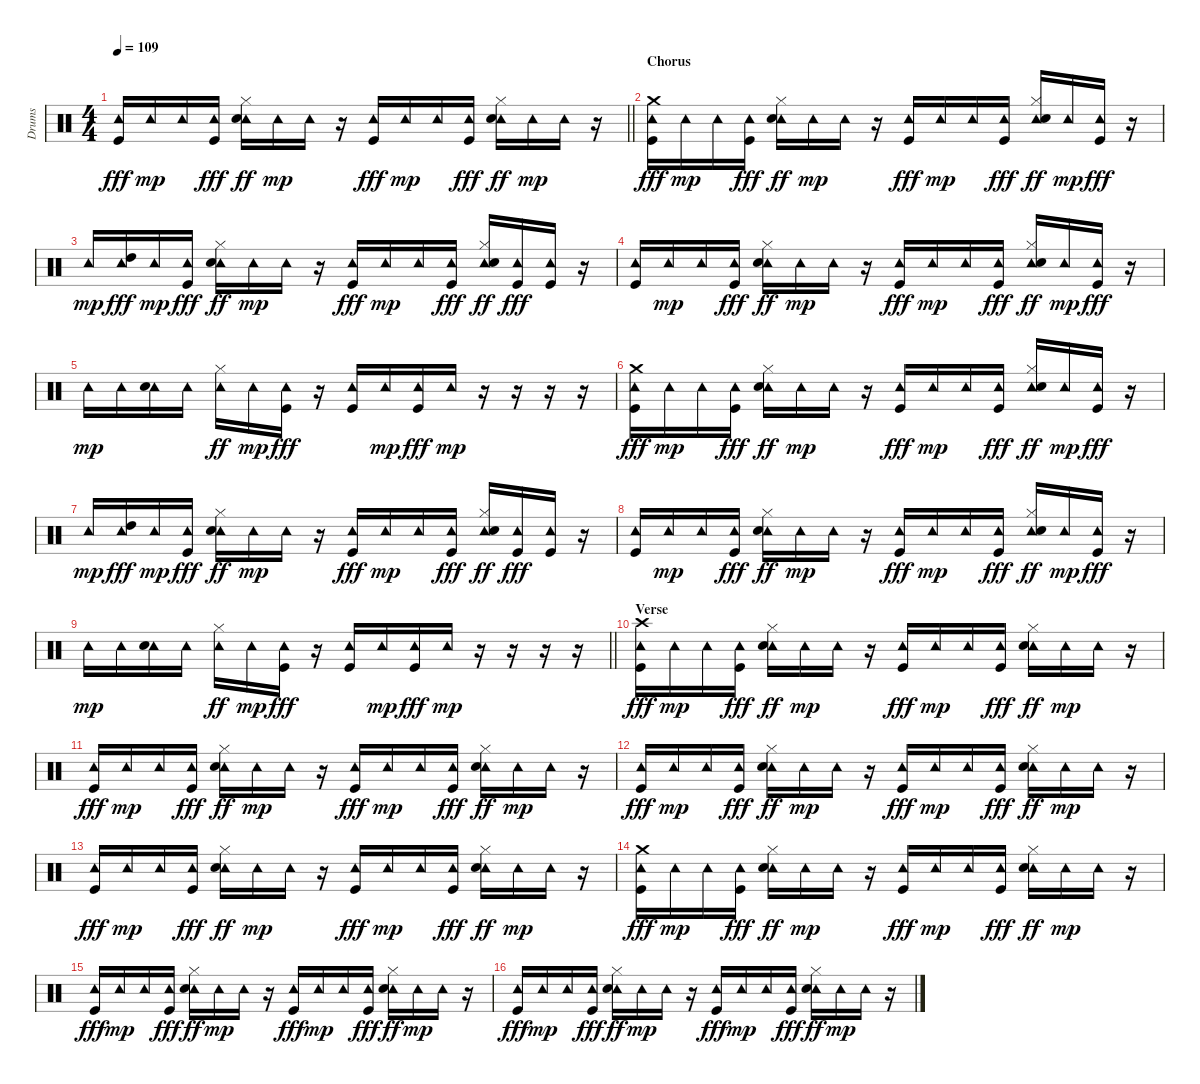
\track ("Drums" "Drums") {instrument percussion}
\staff {score}
\articulation defaults
\ts (4 4)
\tempo 109
\clef neutral
\barLineRight lightlight
\ks c
("Tambourine (hit)" "Kick (hit)").16{dy fff} "Tambourine (hit)".16{dy mp} "Tambourine (hit)".16 ("Tambourine (hit)" "Kick (hit)").16{dy fff} ("Tambourine (hit)" "Hi-Hat (closed)" "Electric Snare (hit)").16{dy ff} "Tambourine (hit)".16{dy mp} "Tambourine (hit)".16 r.16 ("Tambourine (hit)" "Kick (hit)").16{dy fff} "Tambourine (hit)".16{dy mp} "Tambourine (hit)".16 ("Tambourine (hit)" "Kick (hit)").16{dy fff} ("Tambourine (hit)" "Hi-Hat (closed)" "Electric Snare (hit)").16{dy ff} "Tambourine (hit)".16{dy mp} "Tambourine (hit)".16 r.16 |
\section ("" "Chorus")
("Crash medium (hit)" "Tambourine (hit)" "Kick (hit)").16{dy fff} "Tambourine (hit)".16{dy mp} "Tambourine (hit)".16 ("Tambourine (hit)" "Kick (hit)").16{dy fff} ("Tambourine (hit)" "Hi-Hat (closed)" "Electric Snare (hit)").16{dy ff} "Tambourine (hit)".16{dy mp} "Tambourine (hit)".16 r.16 ("Tambourine (hit)" "Kick (hit)").16{dy fff} "Tambourine (hit)".16{dy mp} "Tambourine (hit)".16 ("Tambourine (hit)" "Kick (hit)").16{dy fff} ("Tambourine (hit)" "Hi-Hat (closed)" "Electric Snare (hit)").16{dy ff} "Tambourine (hit)".16{dy mp} ("Tambourine (hit)" "Kick (hit)").16{dy fff} r.16 |
"Tambourine (hit)".16{dy mp} ("Tambourine (hit)" "High Tom (hit)").16{dy fff} "Tambourine (hit)".16{dy mp} ("Tambourine (hit)" "Kick (hit)").16{dy fff} ("Tambourine (hit)" "Hi-Hat (closed)" "Electric Snare (hit)").16{dy ff} "Tambourine (hit)".16{dy mp} "Tambourine (hit)".16 r.16 ("Tambourine (hit)" "Kick (hit)").16{dy fff} "Tambourine (hit)".16{dy mp} "Tambourine (hit)".16 ("Tambourine (hit)" "Kick (hit)").16{dy fff} ("Tambourine (hit)" "Hi-Hat (closed)" "Electric Snare (hit)").16{dy ff} ("Tambourine (hit)" "Kick (hit)").16{dy fff} ("Tambourine (hit)" "Kick (hit)").16 r.16 |
("Tambourine (hit)" "Kick (hit)").16 "Tambourine (hit)".16{dy mp} "Tambourine (hit)".16 ("Tambourine (hit)" "Kick (hit)").16{dy fff} ("Tambourine (hit)" "Hi-Hat (closed)" "Electric Snare (hit)").16{dy ff} "Tambourine (hit)".16{dy mp} "Tambourine (hit)".16 r.16 ("Tambourine (hit)" "Kick (hit)").16{dy fff} "Tambourine (hit)".16{dy mp} "Tambourine (hit)".16 ("Tambourine (hit)" "Kick (hit)").16{dy fff} ("Tambourine (hit)" "Hi-Hat (closed)" "Electric Snare (hit)").16{dy ff} "Tambourine (hit)".16{dy mp} ("Tambourine (hit)" "Kick (hit)").16{dy fff} r.16 |
"Tambourine (hit)".16{dy mp} "Tambourine (hit)".16 ("Tambourine (hit)" "Electric Snare (hit)").16 "Tambourine (hit)".16 ("Tambourine (hit)" "Hi-Hat (closed)").16{dy ff} "Tambourine (hit)".16{dy mp} ("Tambourine (hit)" "Kick (hit)").16{dy fff} r.16 ("Tambourine (hit)" "Kick (hit)").16 "Tambourine (hit)".16{dy mp} ("Tambourine (hit)" "Kick (hit)").16{dy fff} "Tambourine (hit)".16{dy mp} r.16 r.16 r.16 r.16 |
("Crash medium (hit)" "Tambourine (hit)" "Kick (hit)").16{dy fff} "Tambourine (hit)".16{dy mp} "Tambourine (hit)".16 ("Tambourine (hit)" "Kick (hit)").16{dy fff} ("Tambourine (hit)" "Hi-Hat (closed)" "Electric Snare (hit)").16{dy ff} "Tambourine (hit)".16{dy mp} "Tambourine (hit)".16 r.16 ("Tambourine (hit)" "Kick (hit)").16{dy fff} "Tambourine (hit)".16{dy mp} "Tambourine (hit)".16 ("Tambourine (hit)" "Kick (hit)").16{dy fff} ("Tambourine (hit)" "Hi-Hat (closed)" "Electric Snare (hit)").16{dy ff} "Tambourine (hit)".16{dy mp} ("Tambourine (hit)" "Kick (hit)").16{dy fff} r.16 |
"Tambourine (hit)".16{dy mp} ("Tambourine (hit)" "High Tom (hit)").16{dy fff} "Tambourine (hit)".16{dy mp} ("Tambourine (hit)" "Kick (hit)").16{dy fff} ("Tambourine (hit)" "Hi-Hat (closed)" "Electric Snare (hit)").16{dy ff} "Tambourine (hit)".16{dy mp} "Tambourine (hit)".16 r.16 ("Tambourine (hit)" "Kick (hit)").16{dy fff} "Tambourine (hit)".16{dy mp} "Tambourine (hit)".16 ("Tambourine (hit)" "Kick (hit)").16{dy fff} ("Tambourine (hit)" "Hi-Hat (closed)" "Electric Snare (hit)").16{dy ff} ("Tambourine (hit)" "Kick (hit)").16{dy fff} ("Tambourine (hit)" "Kick (hit)").16 r.16 |
("Tambourine (hit)" "Kick (hit)").16 "Tambourine (hit)".16{dy mp} "Tambourine (hit)".16 ("Tambourine (hit)" "Kick (hit)").16{dy fff} ("Tambourine (hit)" "Hi-Hat (closed)" "Electric Snare (hit)").16{dy ff} "Tambourine (hit)".16{dy mp} "Tambourine (hit)".16 r.16 ("Tambourine (hit)" "Kick (hit)").16{dy fff} "Tambourine (hit)".16{dy mp} "Tambourine (hit)".16 ("Tambourine (hit)" "Kick (hit)").16{dy fff} ("Tambourine (hit)" "Hi-Hat (closed)" "Electric Snare (hit)").16{dy ff} "Tambourine (hit)".16{dy mp} ("Tambourine (hit)" "Kick (hit)").16{dy fff} r.16 |
\barLineRight lightlight "Tambourine (hit)".16{dy mp} "Tambourine (hit)".16
("Tambourine (hit)" "Electric Snare (hit)").16 "Tambourine (hit)".16 ("Tambourine (hit)" "Hi-Hat (closed)").16{dy ff} "Tambourine (hit)".16{dy mp} ("Tambourine (hit)" "Kick (hit)").16{dy fff} r.16 ("Tambourine (hit)" "Kick (hit)").16 "Tambourine (hit)".16{dy mp} ("Tambourine (hit)" "Kick (hit)").16{dy fff} "Tambourine (hit)".16{dy mp} r.16 r.16 r.16 r.16 |
\section ("" "Verse")
("Crash high (hit)" "Tambourine (hit)" "Kick (hit)").16{dy fff} "Tambourine (hit)".16{dy mp} "Tambourine (hit)".16 ("Tambourine (hit)" "Kick (hit)").16{dy fff} ("Tambourine (hit)" "Hi-Hat (closed)" "Electric Snare (hit)").16{dy ff} "Tambourine (hit)".16{dy mp} "Tambourine (hit)".16 r.16 ("Tambourine (hit)" "Kick (hit)").16{dy fff} "Tambourine (hit)".16{dy mp} "Tambourine (hit)".16 ("Tambourine (hit)" "Kick (hit)").16{dy fff} ("Tambourine (hit)" "Hi-Hat (closed)" "Electric Snare (hit)").16{dy ff} "Tambourine (hit)".16{dy mp} "Tambourine (hit)".16 r.16 |
("Tambourine (hit)" "Kick (hit)").16{dy fff} "Tambourine (hit)".16{dy mp} "Tambourine (hit)".16 ("Tambourine (hit)" "Kick (hit)").16{dy fff} ("Tambourine (hit)" "Hi-Hat (closed)" "Electric Snare (hit)").16{dy ff} "Tambourine (hit)".16{dy mp} "Tambourine (hit)".16 r.16 ("Tambourine (hit)" "Kick (hit)").16{dy fff} "Tambourine (hit)".16{dy mp} "Tambourine (hit)".16 ("Tambourine (hit)" "Kick (hit)").16{dy fff} ("Tambourine (hit)" "Hi-Hat (closed)" "Electric Snare (hit)").16{dy ff} "Tambourine (hit)".16{dy mp} "Tambourine (hit)".16 r.16 |
("Tambourine (hit)" "Kick (hit)").16{dy fff} "Tambourine (hit)".16{dy mp} "Tambourine (hit)".16 ("Tambourine (hit)" "Kick (hit)").16{dy fff} ("Tambourine (hit)" "Hi-Hat (closed)" "Electric Snare (hit)").16{dy ff} "Tambourine (hit)".16{dy mp} "Tambourine (hit)".16 r.16 ("Tambourine (hit)" "Kick (hit)").16{dy fff} "Tambourine (hit)".16{dy mp} "Tambourine (hit)".16 ("Tambourine (hit)" "Kick (hit)").16{dy fff} ("Tambourine (hit)" "Hi-Hat (closed)" "Electric Snare (hit)").16{dy ff} "Tambourine (hit)".16{dy mp} "Tambourine (hit)".16 r.16 |
("Tambourine (hit)" "Kick (hit)").16{dy fff} "Tambourine (hit)".16{dy mp} "Tambourine (hit)".16 ("Tambourine (hit)" "Kick (hit)").16{dy fff} ("Tambourine (hit)" "Hi-Hat (closed)" "Electric Snare (hit)").16{dy ff} "Tambourine (hit)".16{dy mp} "Tambourine (hit)".16 r.16 ("Tambourine (hit)" "Kick (hit)").16{dy fff} "Tambourine (hit)".16{dy mp} "Tambourine (hit)".16 ("Tambourine (hit)" "Kick (hit)").16{dy fff} ("Tambourine (hit)" "Hi-Hat (closed)" "Electric Snare (hit)").16{dy ff} "Tambourine (hit)".16{dy mp} "Tambourine (hit)".16 r.16 |
("Crash medium (hit)" "Tambourine (hit)" "Kick (hit)").16{dy fff} "Tambourine (hit)".16{dy mp} "Tambourine (hit)".16 ("Tambourine (hit)" "Kick (hit)").16{dy fff} ("Tambourine (hit)" "Hi-Hat (closed)" "Electric Snare (hit)").16{dy ff} "Tambourine (hit)".16{dy mp} "Tambourine (hit)".16 r.16 ("Tambourine (hit)" "Kick (hit)").16{dy fff} "Tambourine (hit)".16{dy mp} "Tambourine (hit)".16 ("Tambourine (hit)" "Kick (hit)").16{dy fff} ("Tambourine (hit)" "Hi-Hat (closed)" "Electric Snare (hit)").16{dy ff} "Tambourine (hit)".16{dy mp} "Tambourine (hit)".16 r.16 |
("Tambourine (hit)" "Kick (hit)").16{dy fff} "Tambourine (hit)".16{dy mp} "Tambourine (hit)".16 ("Tambourine (hit)" "Kick (hit)").16{dy fff} ("Tambourine (hit)" "Hi-Hat (closed)" "Electric Snare (hit)").16{dy ff} "Tambourine (hit)".16{dy mp} "Tambourine (hit)".16 r.16 ("Tambourine (hit)" "Kick (hit)").16{dy fff} "Tambourine (hit)".16{dy mp} "Tambourine (hit)".16 ("Tambourine (hit)" "Kick (hit)").16{dy fff} ("Tambourine (hit)" "Hi-Hat (closed)" "Electric Snare (hit)").16{dy ff} "Tambourine (hit)".16{dy mp} "Tambourine (hit)".16 r.16 |
("Tambourine (hit)" "Kick (hit)").16{dy fff} "Tambourine (hit)".16{dy mp} "Tambourine (hit)".16 ("Tambourine (hit)" "Kick (hit)").16{dy fff} ("Tambourine (hit)" "Hi-Hat (closed)" "Electric Snare (hit)").16{dy ff} "Tambourine (hit)".16{dy mp} "Tambourine (hit)".16 r.16 ("Tambourine (hit)" "Kick (hit)").16{dy fff} "Tambourine (hit)".16{dy mp} "Tambourine (hit)".16 ("Tambourine (hit)" "Kick (hit)").16{dy fff} ("Tambourine (hit)" "Hi-Hat (closed)" "Electric Snare (hit)").16{dy ff} "Tambourine (hit)".16{dy mp} "Tambourine (hit)".16 r.16
